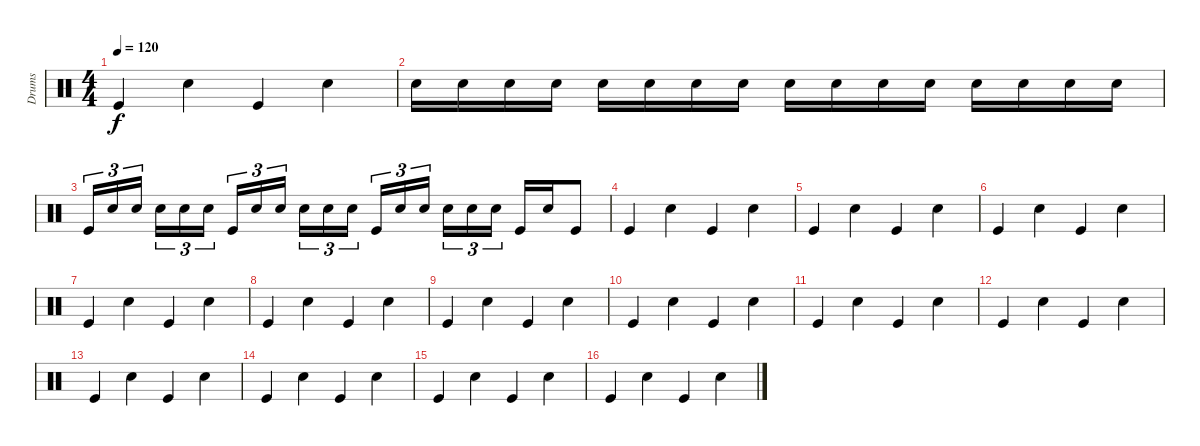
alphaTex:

\track ("Drums" "Drums") {instrument percussion}
\staff {score}
\articulation defaults
\ts (4 4)
\tempo 120
\clef neutral
\ks c "Kick (hit)".4{dy f} "Snare (hit) 2".4 "Kick (hit)".4 "Snare (hit) 2".4
|
"Snare (hit) 2".16 "Snare (hit) 2".16 "Snare (hit) 2".16 "Snare (hit) 2".16 "Snare (hit) 2".16 "Snare (hit) 2".16 "Snare (hit) 2".16 "Snare (hit) 2".16 "Snare (hit) 2".16 "Snare (hit) 2".16 "Snare (hit) 2".16 "Snare (hit) 2".16 "Snare (hit) 2".16 "Snare (hit) 2".16 "Snare (hit) 2".16 "Snare (hit) 2".16 |
"Kick (hit)".16{tu (3 2)} "Snare (hit) 2".16{tu (3 2)} "Snare (hit) 2".16{tu (3 2) beam splitsecondary} "Snare (hit) 2".16{tu (3 2)} "Snare (hit) 2".16{tu (3 2)} "Snare (hit) 2".16{tu (3 2)} "Kick (hit)".16{tu (3 2)} "Snare (hit) 2".16{tu (3 2)} "Snare (hit) 2".16{tu (3 2) beam splitsecondary} "Snare (hit) 2".16{tu (3 2)} "Snare (hit) 2".16{tu (3 2)} "Snare (hit) 2".16{tu (3 2)} "Kick (hit)".16{tu (3 2)} "Snare (hit) 2".16{tu (3 2)} "Snare (hit) 2".16{tu (3 2) beam splitsecondary} "Snare (hit) 2".16{tu (3 2)} "Snare (hit) 2".16{tu (3 2)} "Snare (hit) 2".16{tu (3 2)} "Kick (hit)".16 "Snare (hit) 2".16 "Kick (hit)".8 |
"Kick (hit)".4 "Snare (hit) 2".4 "Kick (hit)".4 "Snare (hit) 2".4 |
"Kick (hit)".4 "Snare (hit) 2".4 "Kick (hit)".4 "Snare (hit) 2".4 |
"Kick (hit)".4 "Snare (hit) 2".4 "Kick (hit)".4 "Snare (hit) 2".4 |
"Kick (hit)".4 "Snare (hit) 2".4 "Kick (hit)".4 "Snare (hit) 2".4 |
"Kick (hit)".4 "Snare (hit) 2".4 "Kick (hit)".4 "Snare (hit) 2".4 |
"Kick (hit)".4 "Snare (hit) 2".4 "Kick (hit)".4 "Snare (hit) 2".4 |
"Kick (hit)".4 "Snare (hit) 2".4 "Kick (hit)".4 "Snare (hit) 2".4 |
"Kick (hit)".4 "Snare (hit) 2".4 "Kick (hit)".4 "Snare (hit) 2".4 |
"Kick (hit)".4 "Snare (hit) 2".4 "Kick (hit)".4 "Snare (hit) 2".4 |
"Kick (hit)".4 "Snare (hit) 2".4 "Kick (hit)".4 "Snare (hit) 2".4 |
"Kick (hit)".4 "Snare (hit) 2".4 "Kick (hit)".4 "Snare (hit) 2".4 |
"Kick (hit)".4 "Snare (hit) 2".4 "Kick (hit)".4 "Snare (hit) 2".4 |
"Kick (hit)".4 "Snare (hit) 2".4 "Kick (hit)".4 "Snare (hit) 2".4
